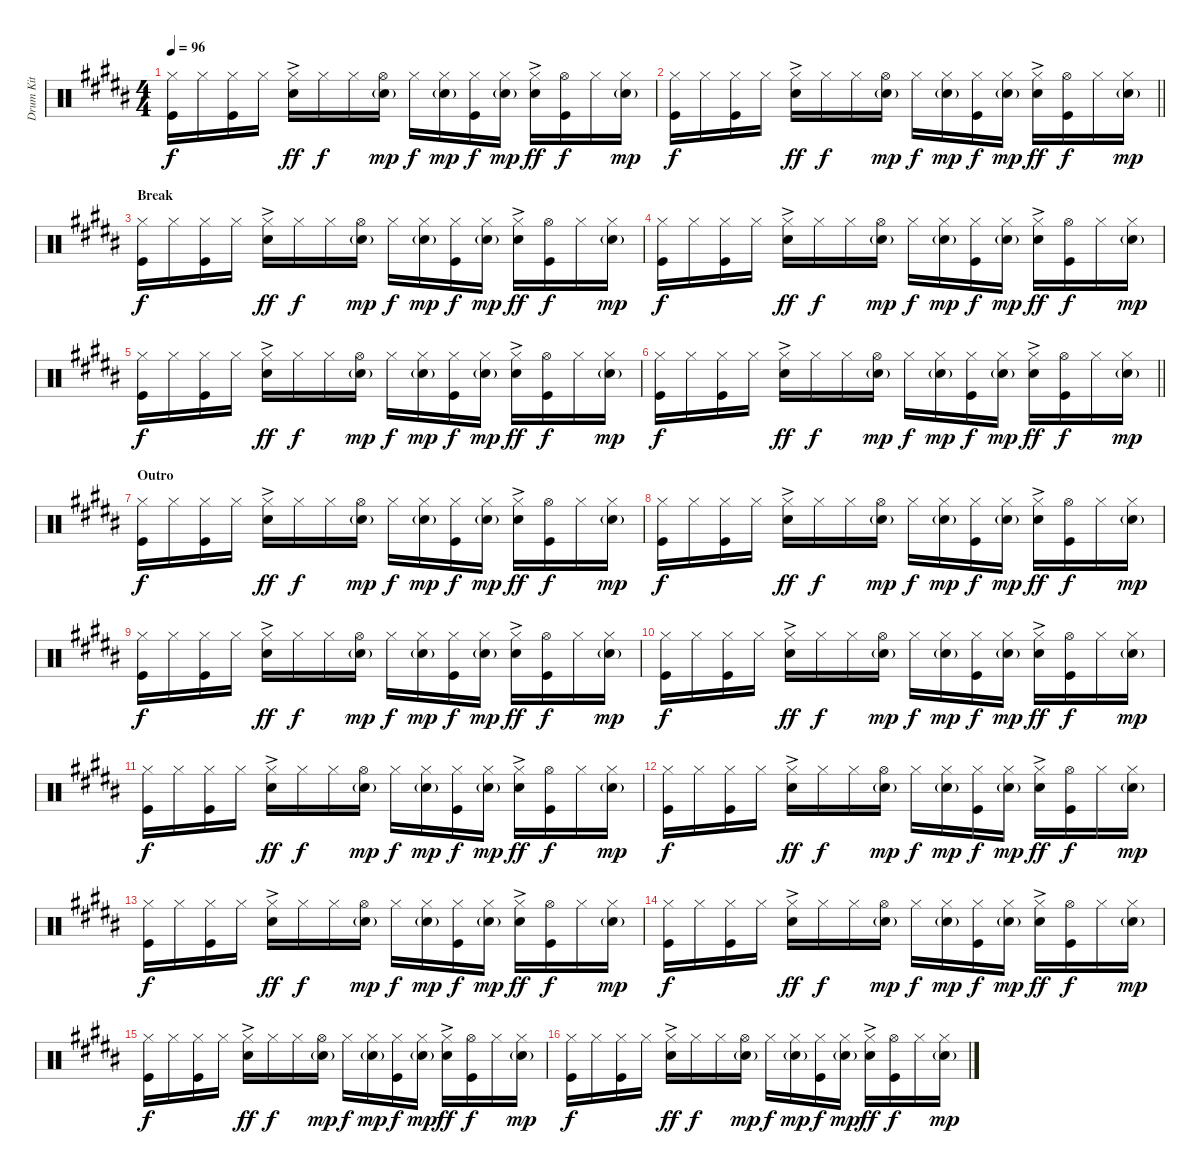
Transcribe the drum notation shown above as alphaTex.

\track ("Drum Kit" "Drum Kit") {instrument percussion}
\staff {score}
\articulation defaults
\ts (4 4)
\tempo 96
\clef neutral
\ks b
("Kick (hit)" "Hi-Hat (closed)").16{dy f} "Hi-Hat (closed)".16 ("Kick (hit)" "Hi-Hat (closed)").16 "Hi-Hat (closed)".16 ("Snare (hit) 2"{ac} "Hi-Hat (closed)").16{dy ff} "Hi-Hat (closed)".16{dy f} "Hi-Hat (closed)".16 ("Snare (hit) 2"{g} "Hi-Hat (open)").16{dy mp} "Hi-Hat (closed)".16{dy f} ("Snare (hit) 2"{g} "Hi-Hat (closed)").16{dy mp} ("Kick (hit)" "Hi-Hat (closed)").16{dy f} ("Snare (hit) 2"{g} "Hi-Hat (closed)").16{dy mp} ("Snare (hit) 2"{ac} "Hi-Hat (closed)").16{dy ff} ("Kick (hit)" "Hi-Hat (open)").16{dy f} "Hi-Hat (closed)".16 ("Snare (hit) 2"{g} "Hi-Hat (closed)").16{dy mp} |
\barLineRight lightlight
("Kick (hit)" "Hi-Hat (closed)").16{dy f} "Hi-Hat (closed)".16 ("Kick (hit)" "Hi-Hat (closed)").16 "Hi-Hat (closed)".16 ("Snare (hit) 2"{ac} "Hi-Hat (closed)").16{dy ff} "Hi-Hat (closed)".16{dy f} "Hi-Hat (closed)".16 ("Snare (hit) 2"{g} "Hi-Hat (open)").16{dy mp} "Hi-Hat (closed)".16{dy f} ("Snare (hit) 2"{g} "Hi-Hat (closed)").16{dy mp} ("Kick (hit)" "Hi-Hat (closed)").16{dy f} ("Snare (hit) 2"{g} "Hi-Hat (closed)").16{dy mp} ("Snare (hit) 2"{ac} "Hi-Hat (closed)").16{dy ff} ("Kick (hit)" "Hi-Hat (open)").16{dy f} "Hi-Hat (closed)".16 ("Snare (hit) 2"{g} "Hi-Hat (closed)").16{dy mp} |
\section ("" "Break")
("Kick (hit)" "Hi-Hat (closed)").16{dy f} "Hi-Hat (closed)".16 ("Kick (hit)" "Hi-Hat (closed)").16 "Hi-Hat (closed)".16 ("Snare (hit) 2"{ac} "Hi-Hat (closed)").16{dy ff} "Hi-Hat (closed)".16{dy f} "Hi-Hat (closed)".16 ("Snare (hit) 2"{g} "Hi-Hat (open)").16{dy mp} "Hi-Hat (closed)".16{dy f} ("Snare (hit) 2"{g} "Hi-Hat (closed)").16{dy mp} ("Kick (hit)" "Hi-Hat (closed)").16{dy f} ("Snare (hit) 2"{g} "Hi-Hat (closed)").16{dy mp} ("Snare (hit) 2"{ac} "Hi-Hat (closed)").16{dy ff} ("Kick (hit)" "Hi-Hat (open)").16{dy f} "Hi-Hat (closed)".16 ("Snare (hit) 2"{g} "Hi-Hat (closed)").16{dy mp} |
("Kick (hit)" "Hi-Hat (closed)").16{dy f} "Hi-Hat (closed)".16 ("Kick (hit)" "Hi-Hat (closed)").16 "Hi-Hat (closed)".16 ("Snare (hit) 2"{ac} "Hi-Hat (closed)").16{dy ff} "Hi-Hat (closed)".16{dy f} "Hi-Hat (closed)".16 ("Snare (hit) 2"{g} "Hi-Hat (open)").16{dy mp} "Hi-Hat (closed)".16{dy f} ("Snare (hit) 2"{g} "Hi-Hat (closed)").16{dy mp} ("Kick (hit)" "Hi-Hat (closed)").16{dy f} ("Snare (hit) 2"{g} "Hi-Hat (closed)").16{dy mp} ("Snare (hit) 2"{ac} "Hi-Hat (closed)").16{dy ff} ("Kick (hit)" "Hi-Hat (open)").16{dy f} "Hi-Hat (closed)".16 ("Snare (hit) 2"{g} "Hi-Hat (closed)").16{dy mp} |
("Kick (hit)" "Hi-Hat (closed)").16{dy f} "Hi-Hat (closed)".16 ("Kick (hit)" "Hi-Hat (closed)").16 "Hi-Hat (closed)".16 ("Snare (hit) 2"{ac} "Hi-Hat (closed)").16{dy ff} "Hi-Hat (closed)".16{dy f} "Hi-Hat (closed)".16 ("Snare (hit) 2"{g} "Hi-Hat (open)").16{dy mp} "Hi-Hat (closed)".16{dy f} ("Snare (hit) 2"{g} "Hi-Hat (closed)").16{dy mp} ("Kick (hit)" "Hi-Hat (closed)").16{dy f} ("Snare (hit) 2"{g} "Hi-Hat (closed)").16{dy mp} ("Snare (hit) 2"{ac} "Hi-Hat (closed)").16{dy ff} ("Kick (hit)" "Hi-Hat (open)").16{dy f} "Hi-Hat (closed)".16 ("Snare (hit) 2"{g} "Hi-Hat (closed)").16{dy mp} |
\barLineRight lightlight
("Kick (hit)" "Hi-Hat (closed)").16{dy f} "Hi-Hat (closed)".16 ("Kick (hit)" "Hi-Hat (closed)").16 "Hi-Hat (closed)".16 ("Snare (hit) 2"{ac} "Hi-Hat (closed)").16{dy ff} "Hi-Hat (closed)".16{dy f} "Hi-Hat (closed)".16 ("Snare (hit) 2"{g} "Hi-Hat (open)").16{dy mp} "Hi-Hat (closed)".16{dy f} ("Snare (hit) 2"{g} "Hi-Hat (closed)").16{dy mp} ("Kick (hit)" "Hi-Hat (closed)").16{dy f} ("Snare (hit) 2"{g} "Hi-Hat (closed)").16{dy mp} ("Snare (hit) 2"{ac} "Hi-Hat (closed)").16{dy ff} ("Kick (hit)" "Hi-Hat (open)").16{dy f} "Hi-Hat (closed)".16 ("Snare (hit) 2"{g} "Hi-Hat (closed)").16{dy mp} |
\section ("" "Outro")
("Kick (hit)" "Hi-Hat (closed)").16{dy f} "Hi-Hat (closed)".16 ("Kick (hit)" "Hi-Hat (closed)").16 "Hi-Hat (closed)".16 ("Snare (hit) 2"{ac} "Hi-Hat (closed)").16{dy ff} "Hi-Hat (closed)".16{dy f} "Hi-Hat (closed)".16 ("Snare (hit) 2"{g} "Hi-Hat (open)").16{dy mp} "Hi-Hat (closed)".16{dy f} ("Snare (hit) 2"{g} "Hi-Hat (closed)").16{dy mp} ("Kick (hit)" "Hi-Hat (closed)").16{dy f} ("Snare (hit) 2"{g} "Hi-Hat (closed)").16{dy mp} ("Snare (hit) 2"{ac} "Hi-Hat (closed)").16{dy ff} ("Kick (hit)" "Hi-Hat (open)").16{dy f} "Hi-Hat (closed)".16 ("Snare (hit) 2"{g} "Hi-Hat (closed)").16{dy mp} |
("Kick (hit)" "Hi-Hat (closed)").16{dy f} "Hi-Hat (closed)".16 ("Kick (hit)" "Hi-Hat (closed)").16 "Hi-Hat (closed)".16 ("Snare (hit) 2"{ac} "Hi-Hat (closed)").16{dy ff} "Hi-Hat (closed)".16{dy f} "Hi-Hat (closed)".16 ("Snare (hit) 2"{g} "Hi-Hat (open)").16{dy mp} "Hi-Hat (closed)".16{dy f} ("Snare (hit) 2"{g} "Hi-Hat (closed)").16{dy mp} ("Kick (hit)" "Hi-Hat (closed)").16{dy f} ("Snare (hit) 2"{g} "Hi-Hat (closed)").16{dy mp} ("Snare (hit) 2"{ac} "Hi-Hat (closed)").16{dy ff} ("Kick (hit)" "Hi-Hat (open)").16{dy f} "Hi-Hat (closed)".16 ("Snare (hit) 2"{g} "Hi-Hat (closed)").16{dy mp} |
("Kick (hit)" "Hi-Hat (closed)").16{dy f} "Hi-Hat (closed)".16 ("Kick (hit)" "Hi-Hat (closed)").16 "Hi-Hat (closed)".16 ("Snare (hit) 2"{ac} "Hi-Hat (closed)").16{dy ff} "Hi-Hat (closed)".16{dy f} "Hi-Hat (closed)".16 ("Snare (hit) 2"{g} "Hi-Hat (open)").16{dy mp} "Hi-Hat (closed)".16{dy f} ("Snare (hit) 2"{g} "Hi-Hat (closed)").16{dy mp} ("Kick (hit)" "Hi-Hat (closed)").16{dy f} ("Snare (hit) 2"{g} "Hi-Hat (closed)").16{dy mp} ("Snare (hit) 2"{ac} "Hi-Hat (closed)").16{dy ff} ("Kick (hit)" "Hi-Hat (open)").16{dy f} "Hi-Hat (closed)".16 ("Snare (hit) 2"{g} "Hi-Hat (closed)").16{dy mp} |
("Kick (hit)" "Hi-Hat (closed)").16{dy f} "Hi-Hat (closed)".16 ("Kick (hit)" "Hi-Hat (closed)").16 "Hi-Hat (closed)".16 ("Snare (hit) 2"{ac} "Hi-Hat (closed)").16{dy ff} "Hi-Hat (closed)".16{dy f} "Hi-Hat (closed)".16 ("Snare (hit) 2"{g} "Hi-Hat (open)").16{dy mp} "Hi-Hat (closed)".16{dy f} ("Snare (hit) 2"{g} "Hi-Hat (closed)").16{dy mp} ("Kick (hit)" "Hi-Hat (closed)").16{dy f} ("Snare (hit) 2"{g} "Hi-Hat (closed)").16{dy mp} ("Snare (hit) 2"{ac} "Hi-Hat (closed)").16{dy ff} ("Kick (hit)" "Hi-Hat (open)").16{dy f} "Hi-Hat (closed)".16 ("Snare (hit) 2"{g} "Hi-Hat (closed)").16{dy mp} |
("Kick (hit)" "Hi-Hat (closed)").16{dy f} "Hi-Hat (closed)".16 ("Kick (hit)" "Hi-Hat (closed)").16 "Hi-Hat (closed)".16 ("Snare (hit) 2"{ac} "Hi-Hat (closed)").16{dy ff} "Hi-Hat (closed)".16{dy f} "Hi-Hat (closed)".16 ("Snare (hit) 2"{g} "Hi-Hat (open)").16{dy mp} "Hi-Hat (closed)".16{dy f} ("Snare (hit) 2"{g} "Hi-Hat (closed)").16{dy mp} ("Kick (hit)" "Hi-Hat (closed)").16{dy f} ("Snare (hit) 2"{g} "Hi-Hat (closed)").16{dy mp} ("Snare (hit) 2"{ac} "Hi-Hat (closed)").16{dy ff} ("Kick (hit)" "Hi-Hat (open)").16{dy f} "Hi-Hat (closed)".16 ("Snare (hit) 2"{g} "Hi-Hat (closed)").16{dy mp} |
("Kick (hit)" "Hi-Hat (closed)").16{dy f} "Hi-Hat (closed)".16 ("Kick (hit)" "Hi-Hat (closed)").16 "Hi-Hat (closed)".16 ("Snare (hit) 2"{ac} "Hi-Hat (closed)").16{dy ff} "Hi-Hat (closed)".16{dy f} "Hi-Hat (closed)".16 ("Snare (hit) 2"{g} "Hi-Hat (open)").16{dy mp} "Hi-Hat (closed)".16{dy f} ("Snare (hit) 2"{g} "Hi-Hat (closed)").16{dy mp} ("Kick (hit)" "Hi-Hat (closed)").16{dy f} ("Snare (hit) 2"{g} "Hi-Hat (closed)").16{dy mp} ("Snare (hit) 2"{ac} "Hi-Hat (closed)").16{dy ff} ("Kick (hit)" "Hi-Hat (open)").16{dy f} "Hi-Hat (closed)".16 ("Snare (hit) 2"{g} "Hi-Hat (closed)").16{dy mp} |
("Kick (hit)" "Hi-Hat (closed)").16{dy f} "Hi-Hat (closed)".16 ("Kick (hit)" "Hi-Hat (closed)").16 "Hi-Hat (closed)".16 ("Snare (hit) 2"{ac} "Hi-Hat (closed)").16{dy ff} "Hi-Hat (closed)".16{dy f} "Hi-Hat (closed)".16 ("Snare (hit) 2"{g} "Hi-Hat (open)").16{dy mp} "Hi-Hat (closed)".16{dy f} ("Snare (hit) 2"{g} "Hi-Hat (closed)").16{dy mp} ("Kick (hit)" "Hi-Hat (closed)").16{dy f} ("Snare (hit) 2"{g} "Hi-Hat (closed)").16{dy mp} ("Snare (hit) 2"{ac} "Hi-Hat (closed)").16{dy ff} ("Kick (hit)" "Hi-Hat (open)").16{dy f} "Hi-Hat (closed)".16 ("Snare (hit) 2"{g} "Hi-Hat (closed)").16{dy mp} |
("Kick (hit)" "Hi-Hat (closed)").16{dy f} "Hi-Hat (closed)".16 ("Kick (hit)" "Hi-Hat (closed)").16 "Hi-Hat (closed)".16 ("Snare (hit) 2"{ac} "Hi-Hat (closed)").16{dy ff} "Hi-Hat (closed)".16{dy f} "Hi-Hat (closed)".16 ("Snare (hit) 2"{g} "Hi-Hat (open)").16{dy mp} "Hi-Hat (closed)".16{dy f} ("Snare (hit) 2"{g} "Hi-Hat (closed)").16{dy mp} ("Kick (hit)" "Hi-Hat (closed)").16{dy f} ("Snare (hit) 2"{g} "Hi-Hat (closed)").16{dy mp} ("Snare (hit) 2"{ac} "Hi-Hat (closed)").16{dy ff} ("Kick (hit)" "Hi-Hat (open)").16{dy f} "Hi-Hat (closed)".16 ("Snare (hit) 2"{g} "Hi-Hat (closed)").16{dy mp} |
("Kick (hit)" "Hi-Hat (closed)").16{dy f} "Hi-Hat (closed)".16 ("Kick (hit)" "Hi-Hat (closed)").16 "Hi-Hat (closed)".16 ("Snare (hit) 2"{ac} "Hi-Hat (closed)").16{dy ff} "Hi-Hat (closed)".16{dy f} "Hi-Hat (closed)".16 ("Snare (hit) 2"{g} "Hi-Hat (open)").16{dy mp} "Hi-Hat (closed)".16{dy f} ("Snare (hit) 2"{g} "Hi-Hat (closed)").16{dy mp} ("Kick (hit)" "Hi-Hat (closed)").16{dy f} ("Snare (hit) 2"{g} "Hi-Hat (closed)").16{dy mp} ("Snare (hit) 2"{ac} "Hi-Hat (closed)").16{dy ff} ("Kick (hit)" "Hi-Hat (open)").16{dy f} "Hi-Hat (closed)".16 ("Snare (hit) 2"{g} "Hi-Hat (closed)").16{dy mp} |
("Kick (hit)" "Hi-Hat (closed)").16{dy f} "Hi-Hat (closed)".16 ("Kick (hit)" "Hi-Hat (closed)").16 "Hi-Hat (closed)".16 ("Snare (hit) 2"{ac} "Hi-Hat (closed)").16{dy ff} "Hi-Hat (closed)".16{dy f} "Hi-Hat (closed)".16 ("Snare (hit) 2"{g} "Hi-Hat (open)").16{dy mp} "Hi-Hat (closed)".16{dy f} ("Snare (hit) 2"{g} "Hi-Hat (closed)").16{dy mp} ("Kick (hit)" "Hi-Hat (closed)").16{dy f} ("Snare (hit) 2"{g} "Hi-Hat (closed)").16{dy mp} ("Snare (hit) 2"{ac} "Hi-Hat (closed)").16{dy ff} ("Kick (hit)" "Hi-Hat (open)").16{dy f} "Hi-Hat (closed)".16 ("Snare (hit) 2"{g} "Hi-Hat (closed)").16{dy mp}
